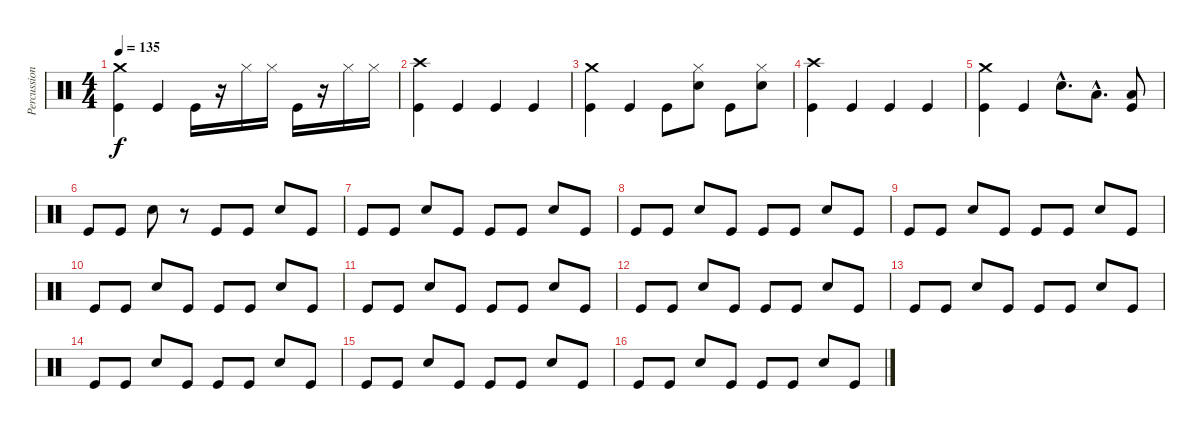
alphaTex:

\track ("Percussions" "Percussion") {instrument percussion}
\staff {score}
\articulation defaults
\ts (4 4)
\tempo 135
\clef neutral
\ks c
("Crash medium (hit)" "Kick (hit)").4{dy f} "Kick (hit)".4 "Kick (hit)".16 r.16 "Hi-Hat (closed)".16 "Hi-Hat (closed)".16 "Kick (hit)".16 r.16 "Hi-Hat (closed)".16 "Hi-Hat (closed)".16 |
("Crash high (hit)" "Kick (hit)").4 "Kick (hit)".4 "Kick (hit)".4 "Kick (hit)".4 |
("Crash medium (hit)" "Kick (hit)").4 "Kick (hit)".4 "Kick (hit)".8 ("Hi-Hat (closed)" "Snare (hit) 2").8 "Kick (hit)".8 ("Hi-Hat (closed)" "Snare (hit) 2").8 |
("Crash high (hit)" "Kick (hit)").4 "Kick (hit)".4 "Kick (hit)".4 "Kick (hit)".4 |
("Crash medium (hit)" "Kick (hit)").4 "Kick (hit)".4 "Snare (hit) 2"{hac}.8{d volume 11} "Low Tom (hit)"{hac}.8{d volume 16} ("Low Floor Tom (hit)" "Kick (hit)").8{volume 16} |
"Kick (hit)".8{volume 13} "Kick (hit)".8 "Snare (hit) 2".8 r.8 "Kick (hit)".8 "Kick (hit)".8 "Snare (hit) 2".8 "Kick (hit)".8 |
"Kick (hit)".8 "Kick (hit)".8 "Snare (hit) 2".8 "Kick (hit)".8 "Kick (hit)".8 "Kick (hit)".8 "Snare (hit) 2".8 "Kick (hit)".8 |
"Kick (hit)".8 "Kick (hit)".8 "Snare (hit) 2".8 "Kick (hit)".8 "Kick (hit)".8 "Kick (hit)".8 "Snare (hit) 2".8 "Kick (hit)".8 |
"Kick (hit)".8 "Kick (hit)".8 "Snare (hit) 2".8 "Kick (hit)".8 "Kick (hit)".8 "Kick (hit)".8 "Snare (hit) 2".8 "Kick (hit)".8 |
"Kick (hit)".8 "Kick (hit)".8 "Snare (hit) 2".8 "Kick (hit)".8 "Kick (hit)".8 "Kick (hit)".8 "Snare (hit) 2".8 "Kick (hit)".8 |
"Kick (hit)".8 "Kick (hit)".8 "Snare (hit) 2".8 "Kick (hit)".8 "Kick (hit)".8 "Kick (hit)".8 "Snare (hit) 2".8 "Kick (hit)".8 |
"Kick (hit)".8 "Kick (hit)".8 "Snare (hit) 2".8 "Kick (hit)".8 "Kick (hit)".8 "Kick (hit)".8 "Snare (hit) 2".8 "Kick (hit)".8 |
"Kick (hit)".8 "Kick (hit)".8 "Snare (hit) 2".8 "Kick (hit)".8 "Kick (hit)".8 "Kick (hit)".8 "Snare (hit) 2".8 "Kick (hit)".8 |
"Kick (hit)".8 "Kick (hit)".8 "Snare (hit) 2".8 "Kick (hit)".8 "Kick (hit)".8 "Kick (hit)".8 "Snare (hit) 2".8 "Kick (hit)".8 |
"Kick (hit)".8 "Kick (hit)".8 "Snare (hit) 2".8 "Kick (hit)".8 "Kick (hit)".8 "Kick (hit)".8 "Snare (hit) 2".8 "Kick (hit)".8 |
"Kick (hit)".8 "Kick (hit)".8 "Snare (hit) 2".8 "Kick (hit)".8 "Kick (hit)".8 "Kick (hit)".8 "Snare (hit) 2".8 "Kick (hit)".8
